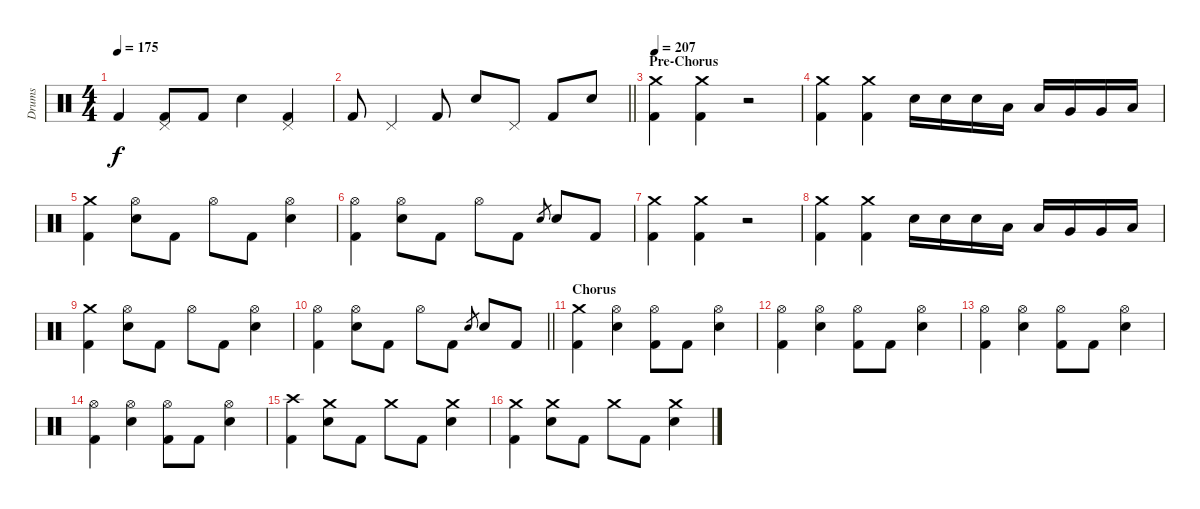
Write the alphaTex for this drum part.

\track ("Drums" "Drums") {instrument percussion}
\staff {score}
\articulation defaults
\ts (4 4)
\tempo 175
\clef neutral
\ks c "Kick (hit) 2".4{dy f}
("Pedal Hi-Hat (hit)" "Kick (hit) 2").8 "Kick (hit) 2".8 "Electric Snare (hit)".4 ("Pedal Hi-Hat (hit)" "Kick (hit) 2").4 |
\barLineRight lightlight "Kick (hit) 2".8 "Pedal Hi-Hat (hit)".4 "Kick (hit) 2".8 "Electric Snare (hit)".8 "Pedal Hi-Hat (hit)".8 "Kick (hit) 2".8 "Electric Snare (hit)".8
|
\section ("" "Pre-Chorus")
\tempo 207
("Crash medium (hit)" "Kick (hit) 2").4{volume 12 balance 8} ("Crash medium (hit)" "Kick (hit) 2").4 r.2 |
("Crash medium (hit)" "Kick (hit) 2").4 ("Crash medium (hit)" "Kick (hit) 2").4 "Electric Snare (hit)".16 "Electric Snare (hit)".16 "Electric Snare (hit)".16 "Low Tom (hit)".16 "Low Tom (hit)".16 "Very Low Tom (hit)".16 "Very Low Tom (hit)".16 "Low Floor Tom (hit)".16 |
("Crash medium (hit)" "Kick (hit) 2").4 ("Hi-Hat (open)" "Electric Snare (hit)").8 "Kick (hit) 2".8 "Hi-Hat (open)".8 "Kick (hit) 2".8 ("Hi-Hat (open)" "Electric Snare (hit)").4 |
("Hi-Hat (open)" "Kick (hit) 2").4 ("Hi-Hat (open)" "Electric Snare (hit)").8 "Kick (hit) 2".8 "Hi-Hat (open)".8 "Kick (hit) 2".8 "Electric Snare (hit)".8{gr} "Electric Snare (hit)".8 "Kick (hit) 2".8 |
("Crash medium (hit)" "Kick (hit) 2").4 ("Crash medium (hit)" "Kick (hit) 2").4 r.2 |
("Crash medium (hit)" "Kick (hit) 2").4 ("Crash medium (hit)" "Kick (hit) 2").4 "Electric Snare (hit)".16 "Electric Snare (hit)".16 "Electric Snare (hit)".16 "Low Tom (hit)".16 "Low Tom (hit)".16 "Very Low Tom (hit)".16 "Very Low Tom (hit)".16 "Low Floor Tom (hit)".16 |
("Crash medium (hit)" "Kick (hit) 2").4 ("Hi-Hat (open)" "Electric Snare (hit)").8 "Kick (hit) 2".8 "Hi-Hat (open)".8 "Kick (hit) 2".8 ("Hi-Hat (open)" "Electric Snare (hit)").4 |
\barLineRight lightlight
("Hi-Hat (open)" "Kick (hit) 2").4 ("Hi-Hat (open)" "Electric Snare (hit)").8 "Kick (hit) 2".8 "Hi-Hat (open)".8 "Kick (hit) 2".8 "Electric Snare (hit)".8{gr} "Electric Snare (hit)".8 "Kick (hit) 2".8 |
\section ("" "Chorus")
("Crash medium (hit)" "Kick (hit) 2").4 ("Hi-Hat (open)" "Electric Snare (hit)").4 ("Hi-Hat (open)" "Kick (hit) 2").8 "Kick (hit) 2".8 ("Hi-Hat (open)" "Electric Snare (hit)").4 |
("Hi-Hat (open)" "Kick (hit) 2").4 ("Hi-Hat (open)" "Electric Snare (hit)").4 ("Hi-Hat (open)" "Kick (hit) 2").8 "Kick (hit) 2".8 ("Hi-Hat (open)" "Electric Snare (hit)").4 |
("Hi-Hat (open)" "Kick (hit) 2").4 ("Hi-Hat (open)" "Electric Snare (hit)").4 ("Hi-Hat (open)" "Kick (hit) 2").8 "Kick (hit) 2".8 ("Hi-Hat (open)" "Electric Snare (hit)").4 |
("Hi-Hat (open)" "Kick (hit) 2").4 ("Hi-Hat (open)" "Electric Snare (hit)").4 ("Hi-Hat (open)" "Kick (hit) 2").8 "Kick (hit) 2".8 ("Hi-Hat (open)" "Electric Snare (hit)").4 |
("Crash high (hit)" "Kick (hit) 2").4 ("Crash medium (hit)" "Electric Snare (hit)").8 "Kick (hit) 2".8 "Crash medium (hit)".8 "Kick (hit) 2".8 ("Crash medium (hit)" "Electric Snare (hit)").4 |
("Crash medium (hit)" "Kick (hit) 2").4 ("Crash medium (hit)" "Electric Snare (hit)").8 "Kick (hit) 2".8 "Crash medium (hit)".8 "Kick (hit) 2".8 ("Crash medium (hit)" "Electric Snare (hit)").4
